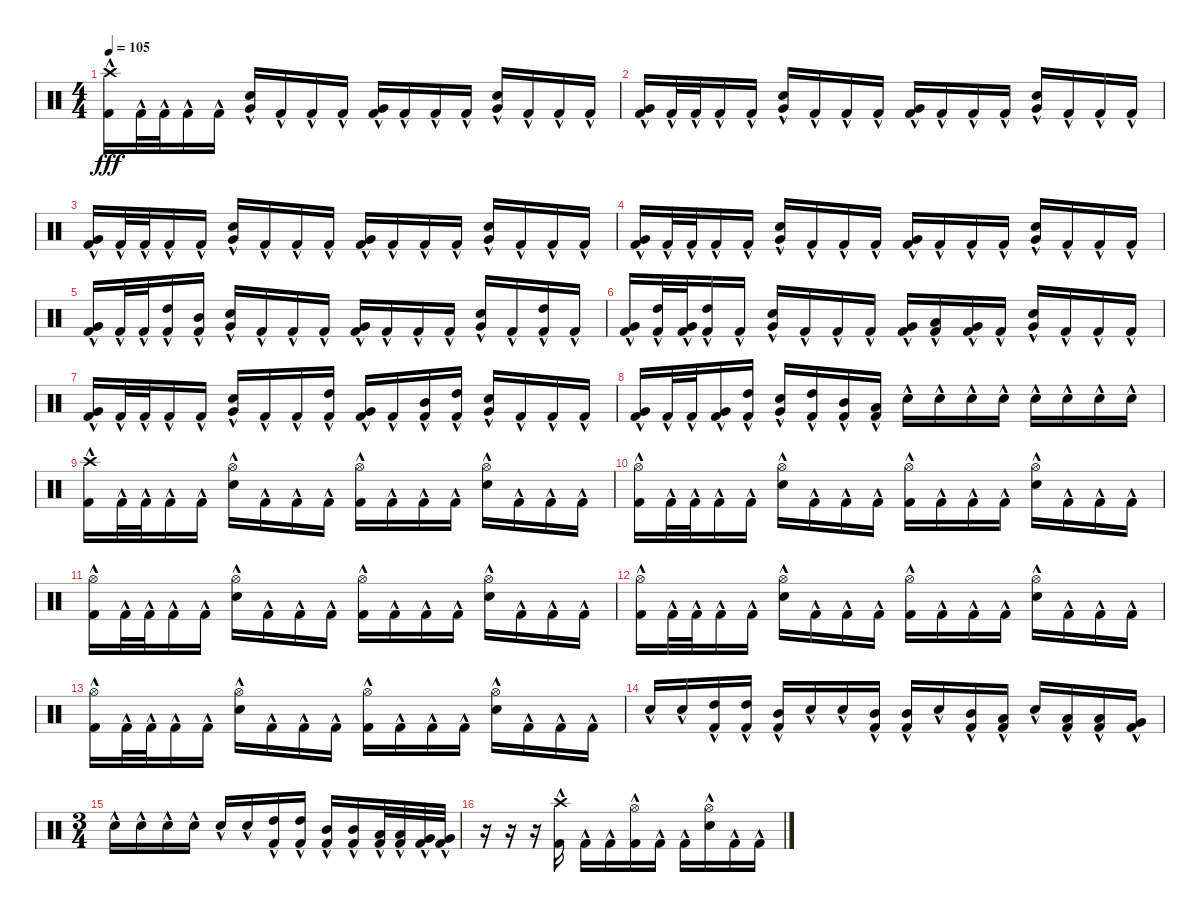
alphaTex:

\track "" {instrument percussion}
\staff {score}
\articulation defaults
\ts (4 4)
\tempo 105
\clef neutral
\ks c
("Kick (hit) 2"{hac} "Crash high (hit)").16{dy fff} "Kick (hit) 2"{hac}.32 "Kick (hit) 2"{hac}.32 "Kick (hit) 2"{hac}.16 "Kick (hit) 2"{hac}.16 ("Electric Snare (hit)"{hac} "Very Low Tom (hit)").16 "Kick (hit) 2"{hac}.16 "Kick (hit) 2"{hac}.16 "Kick (hit) 2"{hac}.16 ("Kick (hit) 2"{hac} "Very Low Tom (hit)").16 "Kick (hit) 2"{hac}.16 "Kick (hit) 2"{hac}.16 "Kick (hit) 2"{hac}.16 ("Electric Snare (hit)"{hac} "Very Low Tom (hit)").16 "Kick (hit) 2"{hac}.16 "Kick (hit) 2"{hac}.16 "Kick (hit) 2"{hac}.16 |
("Kick (hit) 2"{hac} "Very Low Tom (hit)").16 "Kick (hit) 2"{hac}.32 "Kick (hit) 2"{hac}.32 "Kick (hit) 2"{hac}.16 "Kick (hit) 2"{hac}.16 ("Electric Snare (hit)"{hac} "Very Low Tom (hit)").16 "Kick (hit) 2"{hac}.16 "Kick (hit) 2"{hac}.16 "Kick (hit) 2"{hac}.16 ("Kick (hit) 2"{hac} "Very Low Tom (hit)").16 "Kick (hit) 2"{hac}.16 "Kick (hit) 2"{hac}.16 "Kick (hit) 2"{hac}.16 ("Electric Snare (hit)"{hac} "Very Low Tom (hit)").16 "Kick (hit) 2"{hac}.16 "Kick (hit) 2"{hac}.16 "Kick (hit) 2"{hac}.16 |
("Kick (hit) 2"{hac} "Very Low Tom (hit)").16 "Kick (hit) 2"{hac}.32 "Kick (hit) 2"{hac}.32 "Kick (hit) 2"{hac}.16 "Kick (hit) 2"{hac}.16 ("Electric Snare (hit)"{hac} "Very Low Tom (hit)").16 "Kick (hit) 2"{hac}.16 "Kick (hit) 2"{hac}.16 "Kick (hit) 2"{hac}.16 ("Kick (hit) 2"{hac} "Very Low Tom (hit)").16 "Kick (hit) 2"{hac}.16 "Kick (hit) 2"{hac}.16 "Kick (hit) 2"{hac}.16 ("Electric Snare (hit)"{hac} "Very Low Tom (hit)").16 "Kick (hit) 2"{hac}.16 "Kick (hit) 2"{hac}.16 "Kick (hit) 2"{hac}.16 |
("Kick (hit) 2"{hac} "Very Low Tom (hit)").16 "Kick (hit) 2"{hac}.32 "Kick (hit) 2"{hac}.32 "Kick (hit) 2"{hac}.16 "Kick (hit) 2"{hac}.16 ("Electric Snare (hit)"{hac} "Very Low Tom (hit)").16 "Kick (hit) 2"{hac}.16 "Kick (hit) 2"{hac}.16 "Kick (hit) 2"{hac}.16 ("Kick (hit) 2"{hac} "Very Low Tom (hit)").16 "Kick (hit) 2"{hac}.16 "Kick (hit) 2"{hac}.16 "Kick (hit) 2"{hac}.16 ("Electric Snare (hit)"{hac} "Very Low Tom (hit)").16 "Kick (hit) 2"{hac}.16 "Kick (hit) 2"{hac}.16 "Kick (hit) 2"{hac}.16 |
("Kick (hit) 2"{hac} "Very Low Tom (hit)").16 "Kick (hit) 2"{hac}.32 "Kick (hit) 2"{hac}.32 ("Kick (hit) 2"{hac} "High Tom (hit)").16 ("Kick (hit) 2"{hac} "Mid Tom (hit)").16 ("Electric Snare (hit)"{hac} "Very Low Tom (hit)").16 "Kick (hit) 2"{hac}.16 "Kick (hit) 2"{hac}.16 "Kick (hit) 2"{hac}.16 ("Kick (hit) 2"{hac} "Very Low Tom (hit)").16 "Kick (hit) 2"{hac}.16 "Kick (hit) 2"{hac}.16 "Kick (hit) 2"{hac}.16 ("Electric Snare (hit)"{hac} "Very Low Tom (hit)").16 "Kick (hit) 2"{hac}.16 ("Kick (hit) 2"{hac} "High Tom (hit)").16 "Kick (hit) 2"{hac}.16 |
("Kick (hit) 2"{hac} "Very Low Tom (hit)").16 ("Kick (hit) 2"{hac} "High Tom (hit)").32 ("Kick (hit) 2"{hac} "Very Low Tom (hit)").32 ("Kick (hit) 2"{hac} "High Tom (hit)").16 "Kick (hit) 2"{hac}.16 ("Electric Snare (hit)"{hac} "Very Low Tom (hit)").16 "Kick (hit) 2"{hac}.16 "Kick (hit) 2"{hac}.16 "Kick (hit) 2"{hac}.16 ("Kick (hit) 2"{hac} "Very Low Tom (hit)").16 ("Kick (hit) 2"{hac} "Low Tom (hit)").16 ("Kick (hit) 2"{hac} "Very Low Tom (hit)").16 "Kick (hit) 2"{hac}.16 ("Electric Snare (hit)"{hac} "Very Low Tom (hit)").16 "Kick (hit) 2"{hac}.16 "Kick (hit) 2"{hac}.16 "Kick (hit) 2"{hac}.16 |
("Kick (hit) 2"{hac} "Very Low Tom (hit)").16 "Kick (hit) 2"{hac}.32 "Kick (hit) 2"{hac}.32 "Kick (hit) 2"{hac}.16 "Kick (hit) 2"{hac}.16 ("Electric Snare (hit)"{hac} "Very Low Tom (hit)").16 "Kick (hit) 2"{hac}.16 "Kick (hit) 2"{hac}.16 ("Kick (hit) 2"{hac} "High Tom (hit)").16 ("Kick (hit) 2"{hac} "Very Low Tom (hit)").16 "Kick (hit) 2"{hac}.16 ("Kick (hit) 2"{hac} "Mid Tom (hit)").16 ("Kick (hit) 2"{hac} "High Tom (hit)").16 ("Electric Snare (hit)"{hac} "Very Low Tom (hit)").16 "Kick (hit) 2"{hac}.16 "Kick (hit) 2"{hac}.16 "Kick (hit) 2"{hac}.16 |
("Kick (hit) 2"{hac} "Very Low Tom (hit)").16 "Kick (hit) 2"{hac}.32 "Kick (hit) 2"{hac}.32 ("Kick (hit) 2"{hac} "Very Low Tom (hit)").16 ("Kick (hit) 2"{hac} "High Tom (hit)").16 ("Electric Snare (hit)"{hac} "Very Low Tom (hit)").16 ("Kick (hit) 2"{hac} "High Tom (hit)").16 ("Kick (hit) 2"{hac} "Mid Tom (hit)").16 ("Kick (hit) 2"{hac} "Low Tom (hit)").16 "Electric Snare (hit)"{hac}.16 "Electric Snare (hit)"{hac}.16 "Electric Snare (hit)"{hac}.16 "Electric Snare (hit)"{hac}.16 "Electric Snare (hit)"{hac}.16 "Electric Snare (hit)"{hac}.16 "Electric Snare (hit)"{hac}.16 "Electric Snare (hit)"{hac}.16 |
("Kick (hit) 2"{hac} "Crash high (hit)").16 "Kick (hit) 2"{hac}.32 "Kick (hit) 2"{hac}.32 "Kick (hit) 2"{hac}.16 "Kick (hit) 2"{hac}.16 ("Electric Snare (hit)"{hac} "Hi-Hat (open)").16 "Kick (hit) 2"{hac}.16 "Kick (hit) 2"{hac}.16 "Kick (hit) 2"{hac}.16 ("Kick (hit) 2"{hac} "Hi-Hat (open)").16 "Kick (hit) 2"{hac}.16 "Kick (hit) 2"{hac}.16 "Kick (hit) 2"{hac}.16 ("Electric Snare (hit)"{hac} "Hi-Hat (open)").16 "Kick (hit) 2"{hac}.16 "Kick (hit) 2"{hac}.16 "Kick (hit) 2"{hac}.16 |
("Kick (hit) 2"{hac} "Hi-Hat (open)").16 "Kick (hit) 2"{hac}.32 "Kick (hit) 2"{hac}.32 "Kick (hit) 2"{hac}.16 "Kick (hit) 2"{hac}.16 ("Electric Snare (hit)"{hac} "Hi-Hat (open)").16 "Kick (hit) 2"{hac}.16 "Kick (hit) 2"{hac}.16 "Kick (hit) 2"{hac}.16 ("Kick (hit) 2"{hac} "Hi-Hat (open)").16 "Kick (hit) 2"{hac}.16 "Kick (hit) 2"{hac}.16 "Kick (hit) 2"{hac}.16 ("Electric Snare (hit)"{hac} "Hi-Hat (open)").16 "Kick (hit) 2"{hac}.16 "Kick (hit) 2"{hac}.16 "Kick (hit) 2"{hac}.16 |
("Kick (hit) 2"{hac} "Hi-Hat (open)").16 "Kick (hit) 2"{hac}.32 "Kick (hit) 2"{hac}.32 "Kick (hit) 2"{hac}.16 "Kick (hit) 2"{hac}.16 ("Electric Snare (hit)"{hac} "Hi-Hat (open)").16 "Kick (hit) 2"{hac}.16 "Kick (hit) 2"{hac}.16 "Kick (hit) 2"{hac}.16 ("Kick (hit) 2"{hac} "Hi-Hat (open)").16 "Kick (hit) 2"{hac}.16 "Kick (hit) 2"{hac}.16 "Kick (hit) 2"{hac}.16 ("Electric Snare (hit)"{hac} "Hi-Hat (open)").16 "Kick (hit) 2"{hac}.16 "Kick (hit) 2"{hac}.16 "Kick (hit) 2"{hac}.16 |
("Kick (hit) 2"{hac} "Hi-Hat (open)").16 "Kick (hit) 2"{hac}.32 "Kick (hit) 2"{hac}.32 "Kick (hit) 2"{hac}.16 "Kick (hit) 2"{hac}.16 ("Electric Snare (hit)"{hac} "Hi-Hat (open)").16 "Kick (hit) 2"{hac}.16 "Kick (hit) 2"{hac}.16 "Kick (hit) 2"{hac}.16 ("Kick (hit) 2"{hac} "Hi-Hat (open)").16 "Kick (hit) 2"{hac}.16 "Kick (hit) 2"{hac}.16 "Kick (hit) 2"{hac}.16 ("Electric Snare (hit)"{hac} "Hi-Hat (open)").16 "Kick (hit) 2"{hac}.16 "Kick (hit) 2"{hac}.16 "Kick (hit) 2"{hac}.16 |
("Kick (hit) 2"{hac} "Hi-Hat (open)").16 "Kick (hit) 2"{hac}.32 "Kick (hit) 2"{hac}.32 "Kick (hit) 2"{hac}.16 "Kick (hit) 2"{hac}.16 ("Electric Snare (hit)"{hac} "Hi-Hat (open)").16 "Kick (hit) 2"{hac}.16 "Kick (hit) 2"{hac}.16 "Kick (hit) 2"{hac}.16 ("Kick (hit) 2"{hac} "Hi-Hat (open)").16 "Kick (hit) 2"{hac}.16 "Kick (hit) 2"{hac}.16 "Kick (hit) 2"{hac}.16 ("Electric Snare (hit)"{hac} "Hi-Hat (open)").16 "Kick (hit) 2"{hac}.16 "Kick (hit) 2"{hac}.16 "Kick (hit) 2"{hac}.16 |
"Electric Snare (hit)"{hac}.16 "Electric Snare (hit)"{hac}.16 ("Kick (hit) 2"{hac} "High Tom (hit)").16 ("Kick (hit) 2"{hac} "High Tom (hit)").16 ("Kick (hit) 2"{hac} "Mid Tom (hit)").16 "Electric Snare (hit)"{hac}.16 "Electric Snare (hit)"{hac}.16 ("Kick (hit) 2"{hac} "Mid Tom (hit)").16 ("Kick (hit) 2"{hac} "Mid Tom (hit)").16 "Electric Snare (hit)"{hac}.16 ("Kick (hit) 2"{hac} "Mid Tom (hit)").16 ("Kick (hit) 2"{hac} "Low Tom (hit)").16 "Electric Snare (hit)"{hac}.16 ("Kick (hit) 2"{hac} "Low Tom (hit)").16 ("Kick (hit) 2"{hac} "Low Tom (hit)").16 ("Kick (hit) 2"{hac} "Very Low Tom (hit)").16 |
\ts (3 4)
"Electric Snare (hit)"{hac}.16 "Electric Snare (hit)"{hac}.16 "Electric Snare (hit)"{hac}.16 "Electric Snare (hit)"{hac}.16 "Electric Snare (hit)"{hac}.16 "Electric Snare (hit)"{hac}.16 ("High Tom (hit)" "Kick (hit) 2"{hac}).16 ("High Tom (hit)" "Kick (hit) 2"{hac}).16 ("Mid Tom (hit)" "Kick (hit) 2"{hac}).16 ("Mid Tom (hit)" "Kick (hit) 2"{hac}).16 ("Low Tom (hit)" "Kick (hit) 2"{hac}).32 ("Low Tom (hit)" "Kick (hit) 2"{hac}).32 ("Very Low Tom (hit)" "Kick (hit) 2"{hac}).32 ("Very Low Tom (hit)" "Kick (hit) 2"{hac}).32 |
r.16 r.16 r.16 ("Crash high (hit)" "Kick (hit) 2"{hac}).16 "Kick (hit) 2"{hac}.16 "Kick (hit) 2"{hac}.16 ("Hi-Hat (open)" "Kick (hit) 2"{hac}).16 "Kick (hit) 2"{hac}.16 "Kick (hit) 2"{hac}.16 ("Hi-Hat (open)" "Electric Snare (hit)"{hac}).16 "Kick (hit) 2"{hac}.16 "Kick (hit) 2"{hac}.16
